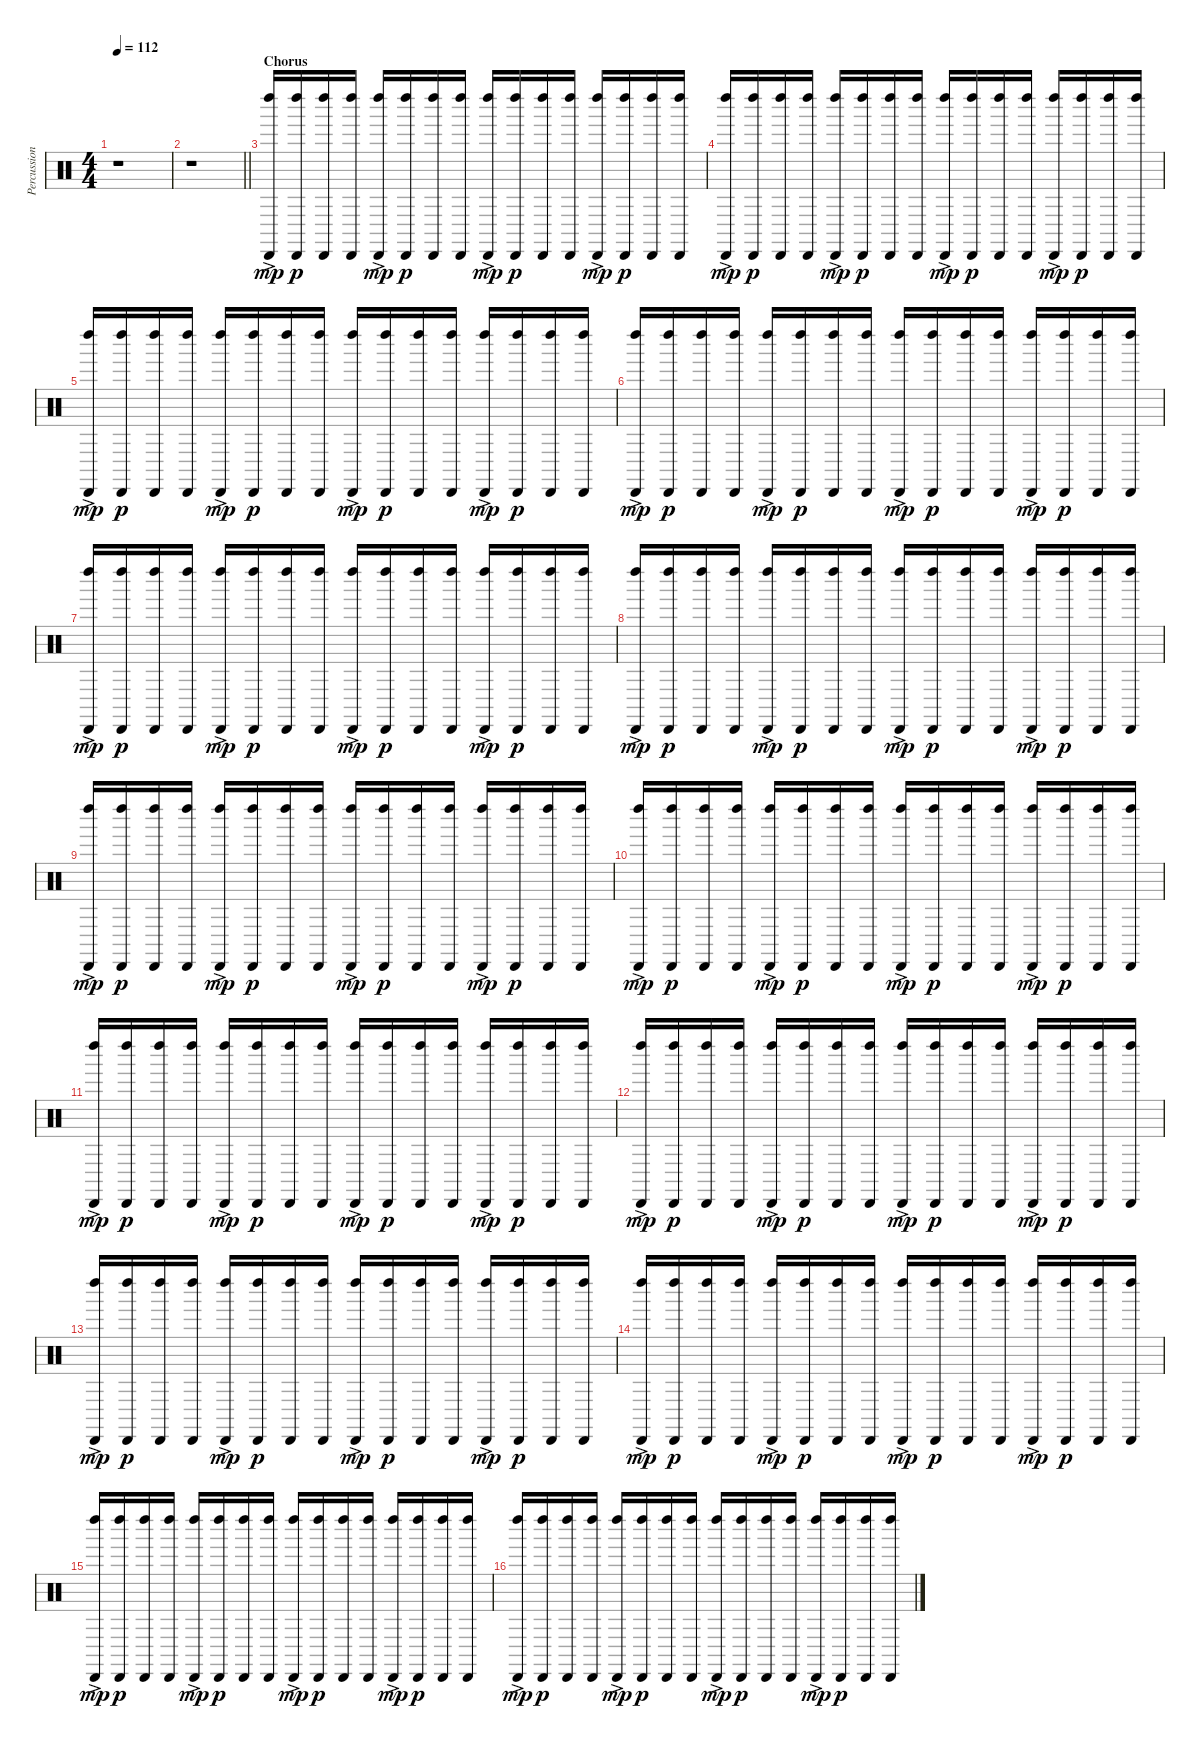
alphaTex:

\track ("Percussion" "Percussion") {instrument percussion}
\staff {score}
\articulation defaults
\ts (4 4)
\tempo 112
\clef neutral
\ks c
r.1{dy mp} |
\barLineRight lightlight
r.1 |
\section ("" "Chorus")
("Left Maraca (hit)"{ac} "Cabasa (hit)"{ac}).16 ("Left Maraca (hit)" "Cabasa (hit)").16{dy p} ("Left Maraca (hit)" "Cabasa (hit)").16 ("Left Maraca (hit)" "Cabasa (hit)").16 ("Left Maraca (hit)"{ac} "Cabasa (hit)"{ac}).16{dy mp} ("Left Maraca (hit)" "Cabasa (hit)").16{dy p} ("Left Maraca (hit)" "Cabasa (hit)").16 ("Left Maraca (hit)" "Cabasa (hit)").16 ("Left Maraca (hit)"{ac} "Cabasa (hit)"{ac}).16{dy mp} ("Left Maraca (hit)" "Cabasa (hit)").16{dy p} ("Left Maraca (hit)" "Cabasa (hit)").16 ("Left Maraca (hit)" "Cabasa (hit)").16 ("Left Maraca (hit)"{ac} "Cabasa (hit)"{ac}).16{dy mp} ("Left Maraca (hit)" "Cabasa (hit)").16{dy p} ("Left Maraca (hit)" "Cabasa (hit)").16 ("Left Maraca (hit)" "Cabasa (hit)").16 |
("Left Maraca (hit)"{ac} "Cabasa (hit)"{ac}).16{dy mp} ("Left Maraca (hit)" "Cabasa (hit)").16{dy p} ("Left Maraca (hit)" "Cabasa (hit)").16 ("Left Maraca (hit)" "Cabasa (hit)").16 ("Left Maraca (hit)"{ac} "Cabasa (hit)"{ac}).16{dy mp} ("Left Maraca (hit)" "Cabasa (hit)").16{dy p} ("Left Maraca (hit)" "Cabasa (hit)").16 ("Left Maraca (hit)" "Cabasa (hit)").16 ("Left Maraca (hit)"{ac} "Cabasa (hit)"{ac}).16{dy mp} ("Left Maraca (hit)" "Cabasa (hit)").16{dy p} ("Left Maraca (hit)" "Cabasa (hit)").16 ("Left Maraca (hit)" "Cabasa (hit)").16 ("Left Maraca (hit)"{ac} "Cabasa (hit)"{ac}).16{dy mp} ("Left Maraca (hit)" "Cabasa (hit)").16{dy p} ("Left Maraca (hit)" "Cabasa (hit)").16 ("Left Maraca (hit)" "Cabasa (hit)").16 |
("Left Maraca (hit)"{ac} "Cabasa (hit)"{ac}).16{dy mp} ("Left Maraca (hit)" "Cabasa (hit)").16{dy p} ("Left Maraca (hit)" "Cabasa (hit)").16 ("Left Maraca (hit)" "Cabasa (hit)").16 ("Left Maraca (hit)"{ac} "Cabasa (hit)"{ac}).16{dy mp} ("Left Maraca (hit)" "Cabasa (hit)").16{dy p} ("Left Maraca (hit)" "Cabasa (hit)").16 ("Left Maraca (hit)" "Cabasa (hit)").16 ("Left Maraca (hit)"{ac} "Cabasa (hit)"{ac}).16{dy mp} ("Left Maraca (hit)" "Cabasa (hit)").16{dy p} ("Left Maraca (hit)" "Cabasa (hit)").16 ("Left Maraca (hit)" "Cabasa (hit)").16 ("Left Maraca (hit)"{ac} "Cabasa (hit)"{ac}).16{dy mp} ("Left Maraca (hit)" "Cabasa (hit)").16{dy p} ("Left Maraca (hit)" "Cabasa (hit)").16 ("Left Maraca (hit)" "Cabasa (hit)").16 |
("Left Maraca (hit)"{ac} "Cabasa (hit)"{ac}).16{dy mp} ("Left Maraca (hit)" "Cabasa (hit)").16{dy p} ("Left Maraca (hit)" "Cabasa (hit)").16 ("Left Maraca (hit)" "Cabasa (hit)").16 ("Left Maraca (hit)"{ac} "Cabasa (hit)"{ac}).16{dy mp} ("Left Maraca (hit)" "Cabasa (hit)").16{dy p} ("Left Maraca (hit)" "Cabasa (hit)").16 ("Left Maraca (hit)" "Cabasa (hit)").16 ("Left Maraca (hit)"{ac} "Cabasa (hit)"{ac}).16{dy mp} ("Left Maraca (hit)" "Cabasa (hit)").16{dy p} ("Left Maraca (hit)" "Cabasa (hit)").16 ("Left Maraca (hit)" "Cabasa (hit)").16 ("Left Maraca (hit)"{ac} "Cabasa (hit)"{ac}).16{dy mp} ("Left Maraca (hit)" "Cabasa (hit)").16{dy p} ("Left Maraca (hit)" "Cabasa (hit)").16 ("Left Maraca (hit)" "Cabasa (hit)").16 |
("Left Maraca (hit)"{ac} "Cabasa (hit)"{ac}).16{dy mp} ("Left Maraca (hit)" "Cabasa (hit)").16{dy p} ("Left Maraca (hit)" "Cabasa (hit)").16 ("Left Maraca (hit)" "Cabasa (hit)").16 ("Left Maraca (hit)"{ac} "Cabasa (hit)"{ac}).16{dy mp} ("Left Maraca (hit)" "Cabasa (hit)").16{dy p} ("Left Maraca (hit)" "Cabasa (hit)").16 ("Left Maraca (hit)" "Cabasa (hit)").16 ("Left Maraca (hit)"{ac} "Cabasa (hit)"{ac}).16{dy mp} ("Left Maraca (hit)" "Cabasa (hit)").16{dy p} ("Left Maraca (hit)" "Cabasa (hit)").16 ("Left Maraca (hit)" "Cabasa (hit)").16 ("Left Maraca (hit)"{ac} "Cabasa (hit)"{ac}).16{dy mp} ("Left Maraca (hit)" "Cabasa (hit)").16{dy p} ("Left Maraca (hit)" "Cabasa (hit)").16 ("Left Maraca (hit)" "Cabasa (hit)").16 |
("Left Maraca (hit)"{ac} "Cabasa (hit)"{ac}).16{dy mp} ("Left Maraca (hit)" "Cabasa (hit)").16{dy p} ("Left Maraca (hit)" "Cabasa (hit)").16 ("Left Maraca (hit)" "Cabasa (hit)").16 ("Left Maraca (hit)"{ac} "Cabasa (hit)"{ac}).16{dy mp} ("Left Maraca (hit)" "Cabasa (hit)").16{dy p} ("Left Maraca (hit)" "Cabasa (hit)").16 ("Left Maraca (hit)" "Cabasa (hit)").16 ("Left Maraca (hit)"{ac} "Cabasa (hit)"{ac}).16{dy mp} ("Left Maraca (hit)" "Cabasa (hit)").16{dy p} ("Left Maraca (hit)" "Cabasa (hit)").16 ("Left Maraca (hit)" "Cabasa (hit)").16 ("Left Maraca (hit)"{ac} "Cabasa (hit)"{ac}).16{dy mp} ("Left Maraca (hit)" "Cabasa (hit)").16{dy p} ("Left Maraca (hit)" "Cabasa (hit)").16 ("Left Maraca (hit)" "Cabasa (hit)").16 |
("Left Maraca (hit)"{ac} "Cabasa (hit)"{ac}).16{dy mp} ("Left Maraca (hit)" "Cabasa (hit)").16{dy p} ("Left Maraca (hit)" "Cabasa (hit)").16 ("Left Maraca (hit)" "Cabasa (hit)").16 ("Left Maraca (hit)"{ac} "Cabasa (hit)"{ac}).16{dy mp} ("Left Maraca (hit)" "Cabasa (hit)").16{dy p} ("Left Maraca (hit)" "Cabasa (hit)").16 ("Left Maraca (hit)" "Cabasa (hit)").16 ("Left Maraca (hit)"{ac} "Cabasa (hit)"{ac}).16{dy mp} ("Left Maraca (hit)" "Cabasa (hit)").16{dy p} ("Left Maraca (hit)" "Cabasa (hit)").16 ("Left Maraca (hit)" "Cabasa (hit)").16 ("Left Maraca (hit)"{ac} "Cabasa (hit)"{ac}).16{dy mp} ("Left Maraca (hit)" "Cabasa (hit)").16{dy p} ("Left Maraca (hit)" "Cabasa (hit)").16 ("Left Maraca (hit)" "Cabasa (hit)").16 |
("Left Maraca (hit)"{ac} "Cabasa (hit)"{ac}).16{dy mp} ("Left Maraca (hit)" "Cabasa (hit)").16{dy p} ("Left Maraca (hit)" "Cabasa (hit)").16 ("Left Maraca (hit)" "Cabasa (hit)").16 ("Left Maraca (hit)"{ac} "Cabasa (hit)"{ac}).16{dy mp} ("Left Maraca (hit)" "Cabasa (hit)").16{dy p} ("Left Maraca (hit)" "Cabasa (hit)").16 ("Left Maraca (hit)" "Cabasa (hit)").16 ("Left Maraca (hit)"{ac} "Cabasa (hit)"{ac}).16{dy mp} ("Left Maraca (hit)" "Cabasa (hit)").16{dy p} ("Left Maraca (hit)" "Cabasa (hit)").16 ("Left Maraca (hit)" "Cabasa (hit)").16 ("Left Maraca (hit)"{ac} "Cabasa (hit)"{ac}).16{dy mp} ("Left Maraca (hit)" "Cabasa (hit)").16{dy p} ("Left Maraca (hit)" "Cabasa (hit)").16 ("Left Maraca (hit)" "Cabasa (hit)").16 |
("Left Maraca (hit)"{ac} "Cabasa (hit)"{ac}).16{dy mp} ("Left Maraca (hit)" "Cabasa (hit)").16{dy p} ("Left Maraca (hit)" "Cabasa (hit)").16 ("Left Maraca (hit)" "Cabasa (hit)").16 ("Left Maraca (hit)"{ac} "Cabasa (hit)"{ac}).16{dy mp} ("Left Maraca (hit)" "Cabasa (hit)").16{dy p} ("Left Maraca (hit)" "Cabasa (hit)").16 ("Left Maraca (hit)" "Cabasa (hit)").16 ("Left Maraca (hit)"{ac} "Cabasa (hit)"{ac}).16{dy mp} ("Left Maraca (hit)" "Cabasa (hit)").16{dy p} ("Left Maraca (hit)" "Cabasa (hit)").16 ("Left Maraca (hit)" "Cabasa (hit)").16 ("Left Maraca (hit)"{ac} "Cabasa (hit)"{ac}).16{dy mp} ("Left Maraca (hit)" "Cabasa (hit)").16{dy p} ("Left Maraca (hit)" "Cabasa (hit)").16 ("Left Maraca (hit)" "Cabasa (hit)").16 |
("Left Maraca (hit)"{ac} "Cabasa (hit)"{ac}).16{dy mp} ("Left Maraca (hit)" "Cabasa (hit)").16{dy p} ("Left Maraca (hit)" "Cabasa (hit)").16 ("Left Maraca (hit)" "Cabasa (hit)").16 ("Left Maraca (hit)"{ac} "Cabasa (hit)"{ac}).16{dy mp} ("Left Maraca (hit)" "Cabasa (hit)").16{dy p} ("Left Maraca (hit)" "Cabasa (hit)").16 ("Left Maraca (hit)" "Cabasa (hit)").16 ("Left Maraca (hit)"{ac} "Cabasa (hit)"{ac}).16{dy mp} ("Left Maraca (hit)" "Cabasa (hit)").16{dy p} ("Left Maraca (hit)" "Cabasa (hit)").16 ("Left Maraca (hit)" "Cabasa (hit)").16 ("Left Maraca (hit)"{ac} "Cabasa (hit)"{ac}).16{dy mp} ("Left Maraca (hit)" "Cabasa (hit)").16{dy p} ("Left Maraca (hit)" "Cabasa (hit)").16 ("Left Maraca (hit)" "Cabasa (hit)").16 |
("Left Maraca (hit)"{ac} "Cabasa (hit)"{ac}).16{dy mp} ("Left Maraca (hit)" "Cabasa (hit)").16{dy p} ("Left Maraca (hit)" "Cabasa (hit)").16 ("Left Maraca (hit)" "Cabasa (hit)").16 ("Left Maraca (hit)"{ac} "Cabasa (hit)"{ac}).16{dy mp} ("Left Maraca (hit)" "Cabasa (hit)").16{dy p} ("Left Maraca (hit)" "Cabasa (hit)").16 ("Left Maraca (hit)" "Cabasa (hit)").16 ("Left Maraca (hit)"{ac} "Cabasa (hit)"{ac}).16{dy mp} ("Left Maraca (hit)" "Cabasa (hit)").16{dy p} ("Left Maraca (hit)" "Cabasa (hit)").16 ("Left Maraca (hit)" "Cabasa (hit)").16 ("Left Maraca (hit)"{ac} "Cabasa (hit)"{ac}).16{dy mp} ("Left Maraca (hit)" "Cabasa (hit)").16{dy p} ("Left Maraca (hit)" "Cabasa (hit)").16 ("Left Maraca (hit)" "Cabasa (hit)").16 |
("Left Maraca (hit)"{ac} "Cabasa (hit)"{ac}).16{dy mp} ("Left Maraca (hit)" "Cabasa (hit)").16{dy p} ("Left Maraca (hit)" "Cabasa (hit)").16 ("Left Maraca (hit)" "Cabasa (hit)").16 ("Left Maraca (hit)"{ac} "Cabasa (hit)"{ac}).16{dy mp} ("Left Maraca (hit)" "Cabasa (hit)").16{dy p} ("Left Maraca (hit)" "Cabasa (hit)").16 ("Left Maraca (hit)" "Cabasa (hit)").16 ("Left Maraca (hit)"{ac} "Cabasa (hit)"{ac}).16{dy mp} ("Left Maraca (hit)" "Cabasa (hit)").16{dy p} ("Left Maraca (hit)" "Cabasa (hit)").16 ("Left Maraca (hit)" "Cabasa (hit)").16 ("Left Maraca (hit)"{ac} "Cabasa (hit)"{ac}).16{dy mp} ("Left Maraca (hit)" "Cabasa (hit)").16{dy p} ("Left Maraca (hit)" "Cabasa (hit)").16 ("Left Maraca (hit)" "Cabasa (hit)").16 |
("Left Maraca (hit)"{ac} "Cabasa (hit)"{ac}).16{dy mp} ("Left Maraca (hit)" "Cabasa (hit)").16{dy p} ("Left Maraca (hit)" "Cabasa (hit)").16 ("Left Maraca (hit)" "Cabasa (hit)").16 ("Left Maraca (hit)"{ac} "Cabasa (hit)"{ac}).16{dy mp} ("Left Maraca (hit)" "Cabasa (hit)").16{dy p} ("Left Maraca (hit)" "Cabasa (hit)").16 ("Left Maraca (hit)" "Cabasa (hit)").16 ("Left Maraca (hit)"{ac} "Cabasa (hit)"{ac}).16{dy mp} ("Left Maraca (hit)" "Cabasa (hit)").16{dy p} ("Left Maraca (hit)" "Cabasa (hit)").16 ("Left Maraca (hit)" "Cabasa (hit)").16 ("Left Maraca (hit)"{ac} "Cabasa (hit)"{ac}).16{dy mp} ("Left Maraca (hit)" "Cabasa (hit)").16{dy p} ("Left Maraca (hit)" "Cabasa (hit)").16 ("Left Maraca (hit)" "Cabasa (hit)").16 |
("Left Maraca (hit)"{ac} "Cabasa (hit)"{ac}).16{dy mp} ("Left Maraca (hit)" "Cabasa (hit)").16{dy p} ("Left Maraca (hit)" "Cabasa (hit)").16 ("Left Maraca (hit)" "Cabasa (hit)").16 ("Left Maraca (hit)"{ac} "Cabasa (hit)"{ac}).16{dy mp} ("Left Maraca (hit)" "Cabasa (hit)").16{dy p} ("Left Maraca (hit)" "Cabasa (hit)").16 ("Left Maraca (hit)" "Cabasa (hit)").16 ("Left Maraca (hit)"{ac} "Cabasa (hit)"{ac}).16{dy mp} ("Left Maraca (hit)" "Cabasa (hit)").16{dy p} ("Left Maraca (hit)" "Cabasa (hit)").16 ("Left Maraca (hit)" "Cabasa (hit)").16 ("Left Maraca (hit)"{ac} "Cabasa (hit)"{ac}).16{dy mp} ("Left Maraca (hit)" "Cabasa (hit)").16{dy p} ("Left Maraca (hit)" "Cabasa (hit)").16 ("Left Maraca (hit)" "Cabasa (hit)").16
